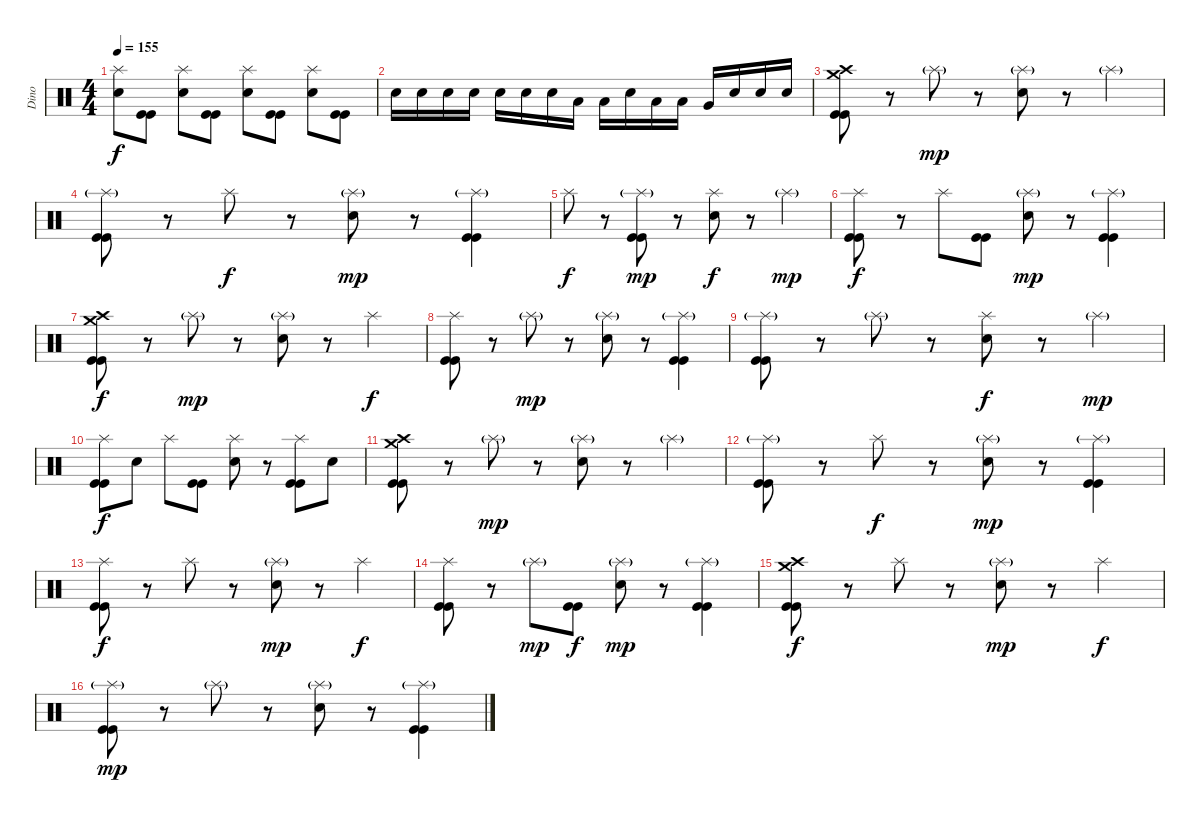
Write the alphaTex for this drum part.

\track ("Dino" "Dino") {instrument percussion}
\staff {score}
\articulation defaults
\ts (4 4)
\tempo 155
\clef neutral
\ks c
("Splash (hit)" "Electric Snare (hit)").8{dy f} ("Kick (hit)" "Kick (hit)").8 ("Splash (hit)" "Electric Snare (hit)").8 ("Kick (hit)" "Kick (hit)").8 ("Splash (hit)" "Electric Snare (hit)").8 ("Kick (hit)" "Kick (hit)").8 ("Splash (hit)" "Electric Snare (hit)").8 ("Kick (hit)" "Kick (hit)").8 |
"Electric Snare (hit)".16 "Electric Snare (hit)".16 "Electric Snare (hit)".16 "Electric Snare (hit)".16 "Electric Snare (hit)".16 "Electric Snare (hit)".16 "Electric Snare (hit)".16 "Low Tom (hit)".16 "Low Tom (hit)".16 "Electric Snare (hit)".16 "Low Tom (hit)".16 "Low Tom (hit)".16 "Very Low Tom (hit)".16 "Electric Snare (hit)".16 "Electric Snare (hit)".16 "Electric Snare (hit)".16 |
("Crash medium (hit)" "Crash high (hit)" "Kick (hit)" "Kick (hit)").8 r.8 "Splash (hit)"{g}.8{dy mp} r.8 ("Splash (hit)"{g} "Electric Snare (hit)").8 r.8 "Splash (hit)"{g}.4 |
("Splash (hit)"{g} "Kick (hit)" "Kick (hit)").8 r.8 "Splash (hit)".8{dy f} r.8 ("Splash (hit)"{g} "Electric Snare (hit)").8{dy mp} r.8 ("Splash (hit)"{g} "Kick (hit)" "Kick (hit)").4 |
"Splash (hit)".8{dy f} r.8 ("Splash (hit)"{g} "Kick (hit)" "Kick (hit)").8{dy mp} r.8 ("Splash (hit)" "Electric Snare (hit)").8{dy f} r.8 "Splash (hit)"{g}.4{dy mp} |
("Splash (hit)" "Kick (hit)" "Kick (hit)").8{dy f} r.8 "Splash (hit)".8 ("Kick (hit)" "Kick (hit)").8 ("Splash (hit)"{g} "Electric Snare (hit)").8{dy mp} r.8 ("Splash (hit)"{g} "Kick (hit)" "Kick (hit)").4 |
("Crash medium (hit)" "Crash high (hit)" "Kick (hit)" "Kick (hit)").8{dy f} r.8 "Splash (hit)"{g}.8{dy mp} r.8 ("Splash (hit)"{g} "Electric Snare (hit)").8 r.8 "Splash (hit)".4{dy f} |
("Splash (hit)" "Kick (hit)" "Kick (hit)").8 r.8 "Splash (hit)"{g}.8{dy mp} r.8 ("Splash (hit)"{g} "Electric Snare (hit)").8 r.8 ("Splash (hit)"{g} "Kick (hit)" "Kick (hit)").4 |
("Splash (hit)"{g} "Kick (hit)" "Kick (hit)").8 r.8 "Splash (hit)"{g}.8 r.8 ("Splash (hit)" "Electric Snare (hit)").8{dy f} r.8 "Splash (hit)"{g}.4{dy mp} |
("Splash (hit)" "Kick (hit)" "Kick (hit)").8{dy f} "Electric Snare (hit)".8 "Splash (hit)".8 ("Kick (hit)" "Kick (hit)").8 ("Splash (hit)" "Electric Snare (hit)").8 r.8 ("Splash (hit)" "Kick (hit)" "Kick (hit)").8 "Electric Snare (hit)".8 |
("Crash medium (hit)" "Crash high (hit)" "Kick (hit)" "Kick (hit)").8 r.8 "Splash (hit)"{g}.8{dy mp} r.8 ("Splash (hit)"{g} "Electric Snare (hit)").8 r.8 "Splash (hit)"{g}.4 |
("Splash (hit)"{g} "Kick (hit)" "Kick (hit)").8 r.8 "Splash (hit)".8{dy f} r.8 ("Splash (hit)"{g} "Electric Snare (hit)").8{dy mp} r.8 ("Splash (hit)"{g} "Kick (hit)" "Kick (hit)").4 |
("Splash (hit)" "Kick (hit)" "Kick (hit)").8{dy f} r.8 "Splash (hit)".8 r.8 ("Splash (hit)"{g} "Electric Snare (hit)").8{dy mp} r.8 "Splash (hit)".4{dy f} |
("Splash (hit)" "Kick (hit)" "Kick (hit)").8 r.8 "Splash (hit)"{g}.8{dy mp} ("Kick (hit)" "Kick (hit)").8{dy f} ("Splash (hit)"{g} "Electric Snare (hit)").8{dy mp} r.8 ("Splash (hit)"{g} "Kick (hit)" "Kick (hit)").4 |
("Crash medium (hit)" "Crash high (hit)" "Kick (hit)" "Kick (hit)").8{dy f} r.8 "Splash (hit)".8 r.8 ("Splash (hit)"{g} "Electric Snare (hit)").8{dy mp} r.8 "Splash (hit)".4{dy f} |
("Splash (hit)"{g} "Kick (hit)" "Kick (hit)").8{dy mp} r.8 "Splash (hit)"{g}.8 r.8 ("Splash (hit)"{g} "Electric Snare (hit)").8 r.8 ("Splash (hit)"{g} "Kick (hit)" "Kick (hit)").4
